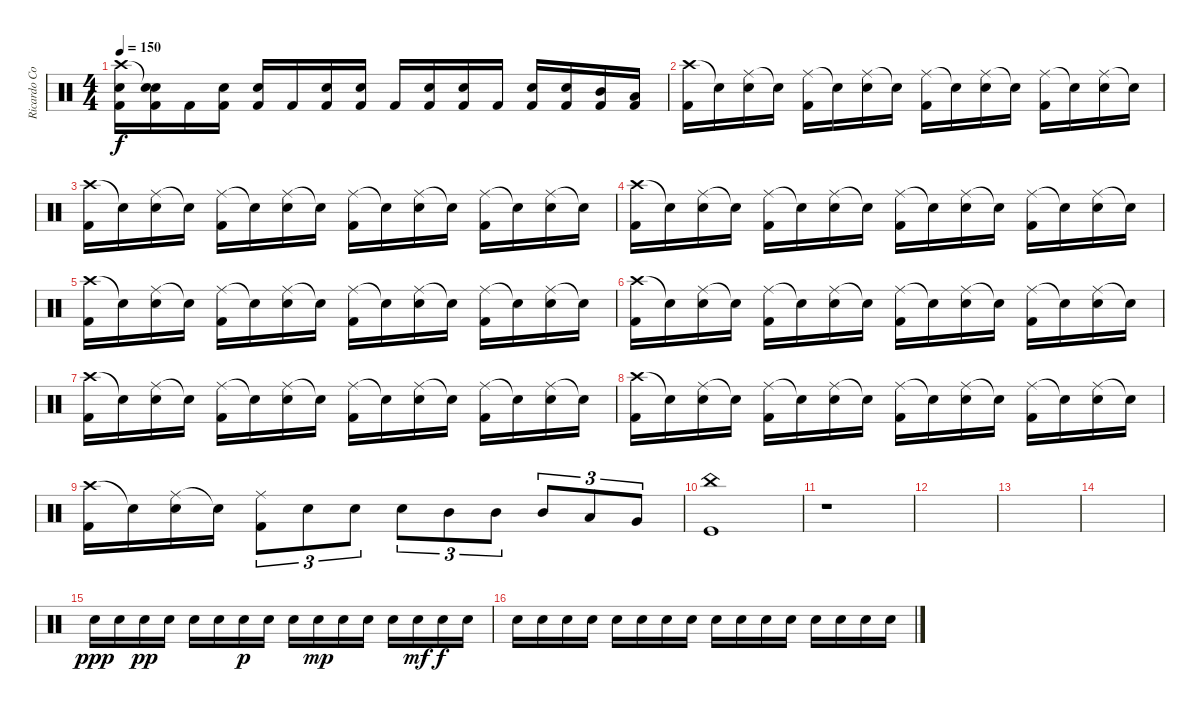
\track ("Ricardo Confessori" "Ricardo Co") {instrument percussion}
\staff {score}
\articulation defaults
\ts (4 4)
\tempo 150
\clef neutral
\ks c
("Crash high (hit)" "Electric Snare (hit)" "Kick (hit) 2").16{dy f} ("Snare (hit)"{t} "Electric Snare (hit)" "Kick (hit) 2").16 "Kick (hit) 2".16 ("Electric Snare (hit)" "Kick (hit) 2").16 ("Electric Snare (hit)" "Kick (hit) 2").16 "Kick (hit) 2".16 ("Electric Snare (hit)" "Kick (hit) 2").16 ("Electric Snare (hit)" "Kick (hit) 2").16 "Kick (hit) 2".16 ("Electric Snare (hit)" "Kick (hit) 2").16 ("Electric Snare (hit)" "Kick (hit) 2").16 "Kick (hit) 2".16 ("Electric Snare (hit)" "Kick (hit) 2").16 ("Electric Snare (hit)" "Kick (hit) 2").16 ("Mid Tom (hit)" "Kick (hit) 2").16 ("Low Tom (hit)" "Kick (hit) 2").16 |
("Crash high (hit)" "Kick (hit) 2").16 "Snare (hit)"{t}.16 ("Ride (middle)" "Electric Snare (hit)").16 "Snare (hit)"{t}.16 ("Ride (middle)" "Kick (hit) 2").16 "Snare (hit)"{t}.16 ("Ride (middle)" "Electric Snare (hit)").16 "Snare (hit)"{t}.16 ("Ride (middle)" "Kick (hit) 2").16 "Snare (hit)"{t}.16 ("Ride (middle)" "Electric Snare (hit)").16 "Snare (hit)"{t}.16 ("Ride (middle)" "Kick (hit) 2").16 "Snare (hit)"{t}.16 ("Ride (middle)" "Electric Snare (hit)").16 "Snare (hit)"{t}.16 |
("Crash high (hit)" "Kick (hit) 2").16 "Snare (hit)"{t}.16 ("Ride (middle)" "Electric Snare (hit)").16 "Snare (hit)"{t}.16 ("Ride (middle)" "Kick (hit) 2").16 "Snare (hit)"{t}.16 ("Ride (middle)" "Electric Snare (hit)").16 "Snare (hit)"{t}.16 ("Ride (middle)" "Kick (hit) 2").16 "Snare (hit)"{t}.16 ("Ride (middle)" "Electric Snare (hit)").16 "Snare (hit)"{t}.16 ("Ride (middle)" "Kick (hit) 2").16 "Snare (hit)"{t}.16 ("Ride (middle)" "Electric Snare (hit)").16 "Snare (hit)"{t}.16 |
("Crash high (hit)" "Kick (hit) 2").16 "Snare (hit)"{t}.16 ("Ride (middle)" "Electric Snare (hit)").16 "Snare (hit)"{t}.16 ("Ride (middle)" "Kick (hit) 2").16 "Snare (hit)"{t}.16 ("Ride (middle)" "Electric Snare (hit)").16 "Snare (hit)"{t}.16 ("Ride (middle)" "Kick (hit) 2").16 "Snare (hit)"{t}.16 ("Ride (middle)" "Electric Snare (hit)").16 "Snare (hit)"{t}.16 ("Ride (middle)" "Kick (hit) 2").16 "Snare (hit)"{t}.16 ("Ride (middle)" "Electric Snare (hit)").16 "Snare (hit)"{t}.16 |
("Crash high (hit)" "Kick (hit) 2").16 "Snare (hit)"{t}.16 ("Ride (middle)" "Electric Snare (hit)").16 "Snare (hit)"{t}.16 ("Ride (middle)" "Kick (hit) 2").16 "Snare (hit)"{t}.16 ("Ride (middle)" "Electric Snare (hit)").16 "Snare (hit)"{t}.16 ("Ride (middle)" "Kick (hit) 2").16 "Snare (hit)"{t}.16 ("Ride (middle)" "Electric Snare (hit)").16 "Snare (hit)"{t}.16 ("Ride (middle)" "Kick (hit) 2").16 "Snare (hit)"{t}.16 ("Ride (middle)" "Electric Snare (hit)").16 "Snare (hit)"{t}.16 |
("Crash high (hit)" "Kick (hit) 2").16 "Snare (hit)"{t}.16 ("Ride (middle)" "Electric Snare (hit)").16 "Snare (hit)"{t}.16 ("Ride (middle)" "Kick (hit) 2").16 "Snare (hit)"{t}.16 ("Ride (middle)" "Electric Snare (hit)").16 "Snare (hit)"{t}.16 ("Ride (middle)" "Kick (hit) 2").16 "Snare (hit)"{t}.16 ("Ride (middle)" "Electric Snare (hit)").16 "Snare (hit)"{t}.16 ("Ride (middle)" "Kick (hit) 2").16 "Snare (hit)"{t}.16 ("Ride (middle)" "Electric Snare (hit)").16 "Snare (hit)"{t}.16 |
("Crash high (hit)" "Kick (hit) 2").16 "Snare (hit)"{t}.16 ("Ride (middle)" "Electric Snare (hit)").16 "Snare (hit)"{t}.16 ("Ride (middle)" "Kick (hit) 2").16 "Snare (hit)"{t}.16 ("Ride (middle)" "Electric Snare (hit)").16 "Snare (hit)"{t}.16 ("Ride (middle)" "Kick (hit) 2").16 "Snare (hit)"{t}.16 ("Ride (middle)" "Electric Snare (hit)").16 "Snare (hit)"{t}.16 ("Ride (middle)" "Kick (hit) 2").16 "Snare (hit)"{t}.16 ("Ride (middle)" "Electric Snare (hit)").16 "Snare (hit)"{t}.16 |
("Crash high (hit)" "Kick (hit) 2").16 "Snare (hit)"{t}.16 ("Ride (middle)" "Electric Snare (hit)").16 "Snare (hit)"{t}.16 ("Ride (middle)" "Kick (hit) 2").16 "Snare (hit)"{t}.16 ("Ride (middle)" "Electric Snare (hit)").16 "Snare (hit)"{t}.16 ("Ride (middle)" "Kick (hit) 2").16 "Snare (hit)"{t}.16 ("Ride (middle)" "Electric Snare (hit)").16 "Snare (hit)"{t}.16 ("Ride (middle)" "Kick (hit) 2").16 "Snare (hit)"{t}.16 ("Ride (middle)" "Electric Snare (hit)").16 "Snare (hit)"{t}.16 |
("Crash high (hit)" "Kick (hit) 2").16 "Snare (hit)"{t}.16 ("Ride (middle)" "Electric Snare (hit)").16 "Snare (hit)"{t}.16 ("Ride (middle)" "Kick (hit) 2").8{tu (3 2)} "Electric Snare (hit)".8{tu (3 2)} "Electric Snare (hit)".8{tu (3 2)} "Electric Snare (hit)".8{tu (3 2)} "Mid Tom (hit)".8{tu (3 2)} "Mid Tom (hit)".8{tu (3 2)} "Mid Tom (hit)".8{tu (3 2)} "Low Tom (hit)".8{tu (3 2)} "Very Low Tom (hit)".8{tu (3 2)} |
("China (hit)" "Kick (hit)").1 |
r.1 |
|
|
|
"Electric Snare (hit)".16{dy ppp} "Electric Snare (hit)".16 "Electric Snare (hit)".16{dy pp} "Electric Snare (hit)".16 "Electric Snare (hit)".16 "Electric Snare (hit)".16 "Electric Snare (hit)".16{dy p} "Electric Snare (hit)".16 "Electric Snare (hit)".16 "Electric Snare (hit)".16{dy mp} "Electric Snare (hit)".16 "Electric Snare (hit)".16 "Electric Snare (hit)".16 "Electric Snare (hit)".16{dy mf} "Electric Snare (hit)".16{dy f} "Electric Snare (hit)".16 |
"Electric Snare (hit)".16 "Electric Snare (hit)".16 "Electric Snare (hit)".16 "Electric Snare (hit)".16 "Electric Snare (hit)".16 "Electric Snare (hit)".16 "Electric Snare (hit)".16 "Electric Snare (hit)".16 "Electric Snare (hit)".16 "Electric Snare (hit)".16 "Electric Snare (hit)".16 "Electric Snare (hit)".16 "Electric Snare (hit)".16 "Electric Snare (hit)".16 "Electric Snare (hit)".16 "Electric Snare (hit)".16
